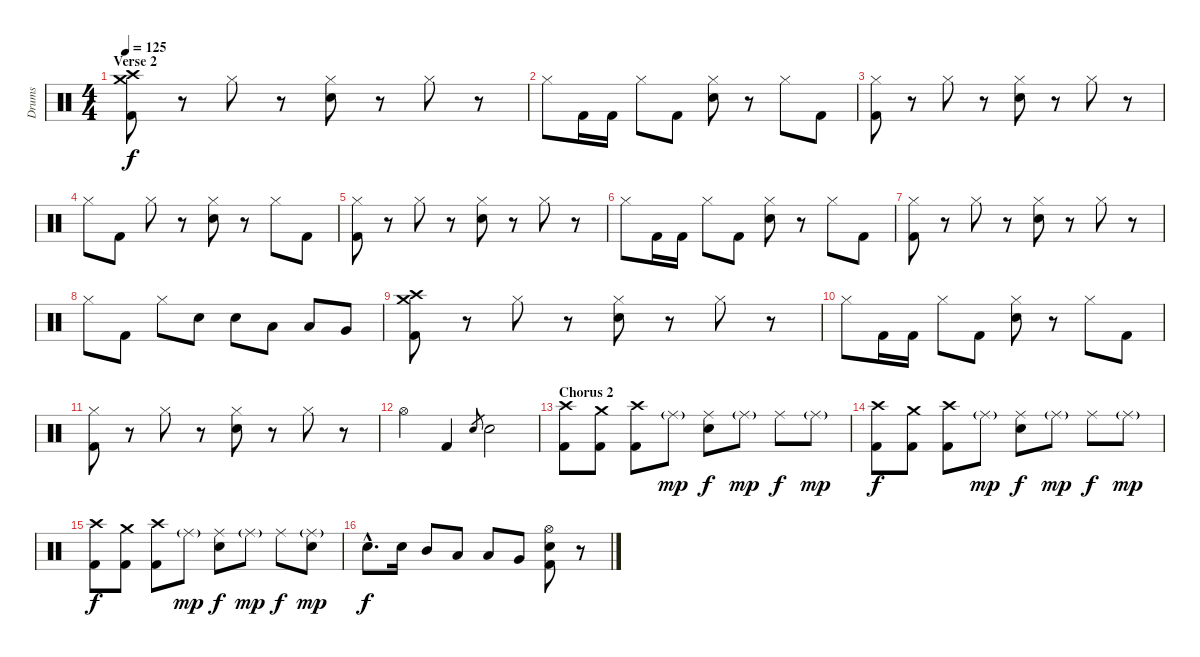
\track ("Drums" "Drums") {instrument percussion}
\staff {score}
\articulation defaults
\ts (4 4)
\section ("" "Verse 2")
\tempo 125
\clef neutral
\ks c
("Crash medium (hit)" "Crash high (hit)" "Kick (hit) 2").8{dy f} r.8 "Hi-Hat (closed)".8 r.8 ("Hi-Hat (closed)" "Electric Snare (hit)").8 r.8 "Hi-Hat (closed)".8 r.8 |
"Hi-Hat (closed)".8 "Kick (hit) 2".16 "Kick (hit) 2".16 "Hi-Hat (closed)".8 "Kick (hit) 2".8 ("Hi-Hat (closed)" "Electric Snare (hit)").8 r.8 "Hi-Hat (closed)".8 "Kick (hit) 2".8 |
("Hi-Hat (closed)" "Kick (hit) 2").8 r.8 "Hi-Hat (closed)".8 r.8 ("Hi-Hat (closed)" "Electric Snare (hit)").8 r.8 "Hi-Hat (closed)".8 r.8 |
"Hi-Hat (closed)".8 "Kick (hit) 2".8 "Hi-Hat (closed)".8 r.8 ("Hi-Hat (closed)" "Electric Snare (hit)").8 r.8 "Hi-Hat (closed)".8 "Kick (hit) 2".8 |
("Hi-Hat (closed)" "Kick (hit) 2").8 r.8 "Hi-Hat (closed)".8 r.8 ("Hi-Hat (closed)" "Electric Snare (hit)").8 r.8 "Hi-Hat (closed)".8 r.8 |
"Hi-Hat (closed)".8 "Kick (hit) 2".16 "Kick (hit) 2".16 "Hi-Hat (closed)".8 "Kick (hit) 2".8 ("Hi-Hat (closed)" "Electric Snare (hit)").8 r.8 "Hi-Hat (closed)".8 "Kick (hit) 2".8 |
("Hi-Hat (closed)" "Kick (hit) 2").8 r.8 "Hi-Hat (closed)".8 r.8 ("Hi-Hat (closed)" "Electric Snare (hit)").8 r.8 "Hi-Hat (closed)".8 r.8 |
"Hi-Hat (closed)".8 "Kick (hit) 2".8 "Hi-Hat (closed)".8 "Electric Snare (hit)".8 "Electric Snare (hit)".8 "Low Tom (hit)".8 "Low Tom (hit)".8 "Very Low Tom (hit)".8 |
("Crash medium (hit)" "Crash high (hit)" "Kick (hit) 2").8 r.8 "Hi-Hat (closed)".8 r.8 ("Hi-Hat (closed)" "Electric Snare (hit)").8 r.8 "Hi-Hat (closed)".8 r.8 |
"Hi-Hat (closed)".8 "Kick (hit) 2".16 "Kick (hit) 2".16 "Hi-Hat (closed)".8 "Kick (hit) 2".8 ("Hi-Hat (closed)" "Electric Snare (hit)").8 r.8 "Hi-Hat (closed)".8 "Kick (hit) 2".8 |
("Hi-Hat (closed)" "Kick (hit) 2").8 r.8 "Hi-Hat (closed)".8 r.8 ("Hi-Hat (closed)" "Electric Snare (hit)").8 r.8 "Hi-Hat (closed)".8 r.8 |
"Hi-Hat (open)".4 "Kick (hit) 2".4 "Electric Snare (hit)".8{gr} "Electric Snare (hit)".2 |
\section ("" "Chorus 2")
("Crash high (hit)" "Kick (hit) 2").8 ("Crash medium (hit)" "Kick (hit) 2").8 ("Crash high (hit)" "Kick (hit) 2").8 "Ride (middle)"{g}.8{dy mp} ("Ride (middle)" "Electric Snare (hit)").8{dy f} "Ride (middle)"{g}.8{dy mp} "Ride (middle)".8{dy f} "Ride (middle)"{g}.8{dy mp} |
("Crash high (hit)" "Kick (hit) 2").8{dy f} ("Crash medium (hit)" "Kick (hit) 2").8 ("Crash high (hit)" "Kick (hit) 2").8 "Ride (middle)"{g}.8{dy mp} ("Ride (middle)" "Electric Snare (hit)").8{dy f} "Ride (middle)"{g}.8{dy mp} "Ride (middle)".8{dy f} "Ride (middle)"{g}.8{dy mp} |
("Crash high (hit)" "Kick (hit) 2").8{dy f} ("Crash medium (hit)" "Kick (hit) 2").8 ("Crash high (hit)" "Kick (hit) 2").8 "Ride (middle)"{g}.8{dy mp} ("Ride (middle)" "Electric Snare (hit)").8{dy f} "Ride (middle)"{g}.8{dy mp} "Ride (middle)".8{dy f} ("Ride (middle)"{g} "Electric Snare (hit)").8{dy mp} |
"Electric Snare (hit)"{hac}.8{d dy f} "Electric Snare (hit)".16 "Mid Tom (hit)".8 "Low Tom (hit)".8 "Low Tom (hit)".8 "Very Low Tom (hit)".8 ("Hi-Hat (open)" "Electric Snare (hit)" "Kick (hit) 2").8 r.8
